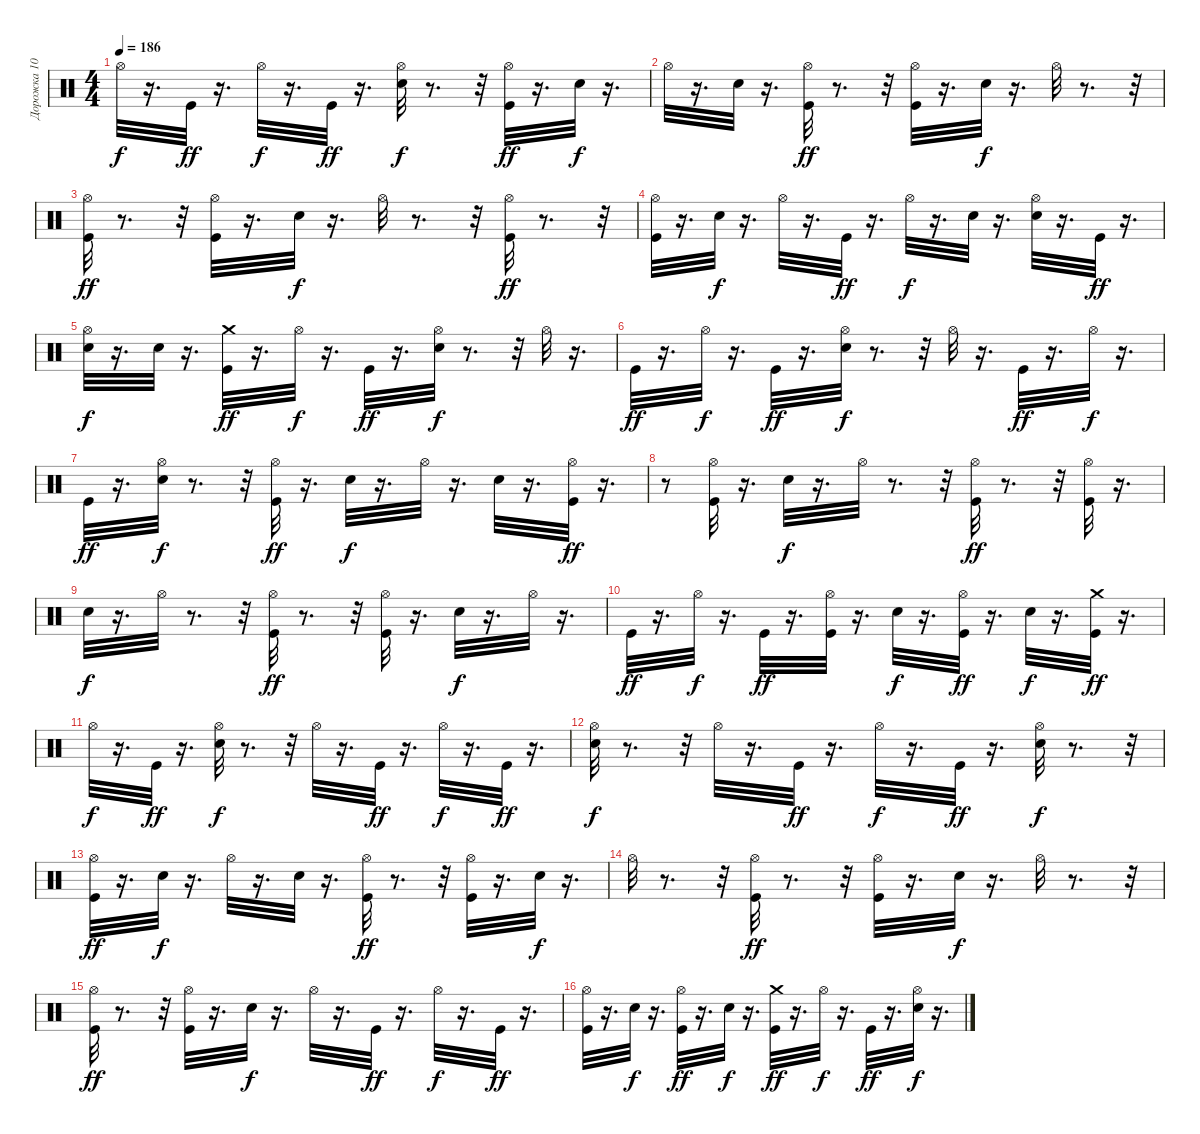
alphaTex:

\track ("Дорожка 10" "Дорожка 10") {instrument percussion}
\staff {score}
\articulation defaults
\ts (4 4)
\tempo 186
\clef neutral
\ks c "Hi-Hat (open)".32{dy f}
r.16{d} "Kick (hit)".32{dy ff} r.16{d} "Hi-Hat (open)".32{dy f} r.16{d} "Kick (hit)".32{dy ff} r.16{d} ("Electric Snare (hit)" "Hi-Hat (open)").32{dy f} r.8{d} r.32 ("Kick (hit)" "Hi-Hat (open)").32{dy ff} r.16{d} "Electric Snare (hit)".32{dy f} r.16{d} |
"Hi-Hat (open)".32 r.16{d} "Electric Snare (hit)".32 r.16{d} ("Hi-Hat (open)" "Kick (hit)").32{dy ff} r.8{d} r.32 ("Hi-Hat (open)" "Kick (hit)").32 r.16{d} "Electric Snare (hit)".32{dy f} r.16{d} "Hi-Hat (open)".32 r.8{d} r.32 |
("Hi-Hat (open)" "Kick (hit)").32{dy ff} r.8{d} r.32 ("Kick (hit)" "Hi-Hat (open)").32 r.16{d} "Electric Snare (hit)".32{dy f} r.16{d} "Hi-Hat (open)".32 r.8{d} r.32 ("Kick (hit)" "Hi-Hat (open)").32{dy ff} r.8{d} r.32 |
("Kick (hit)" "Hi-Hat (open)").32 r.16{d} "Electric Snare (hit)".32{dy f} r.16{d} "Hi-Hat (open)".32 r.16{d} "Kick (hit)".32{dy ff} r.16{d} "Hi-Hat (open)".32{dy f} r.16{d} "Electric Snare (hit)".32 r.16{d} ("Electric Snare (hit)" "Hi-Hat (open)").32 r.16{d} "Kick (hit)".32{dy ff} r.16{d} |
("Hi-Hat (open)" "Electric Snare (hit)").32{dy f} r.16{d} "Electric Snare (hit)".32 r.16{d} ("Crash medium (hit)" "Kick (hit)").32{dy ff} r.16{d} "Hi-Hat (open)".32{dy f} r.16{d} "Kick (hit)".32{dy ff} r.16{d} ("Hi-Hat (open)" "Electric Snare (hit)").32{dy f} r.8{d} r.32 "Hi-Hat (open)".32 r.16{d} |
"Kick (hit)".32{dy ff} r.16{d} "Hi-Hat (open)".32{dy f} r.16{d} "Kick (hit)".32{dy ff} r.16{d} ("Electric Snare (hit)" "Hi-Hat (open)").32{dy f} r.8{d} r.32 "Hi-Hat (open)".32 r.16{d} "Kick (hit)".32{dy ff} r.16{d} "Hi-Hat (open)".32{dy f} r.16{d} |
"Kick (hit)".32{dy ff} r.16{d} ("Hi-Hat (open)" "Electric Snare (hit)").32{dy f} r.8{d} r.32 ("Hi-Hat (open)" "Kick (hit)").32{dy ff} r.16{d} "Electric Snare (hit)".32{dy f} r.16{d} "Hi-Hat (open)".32 r.16{d} "Electric Snare (hit)".32 r.16{d} ("Hi-Hat (open)" "Kick (hit)").32{dy ff} r.16{d} |
r.8 ("Kick (hit)" "Hi-Hat (open)").32 r.16{d} "Electric Snare (hit)".32{dy f} r.16{d} "Hi-Hat (open)".32 r.8{d} r.32 ("Kick (hit)" "Hi-Hat (open)").32{dy ff} r.8{d} r.32 ("Kick (hit)" "Hi-Hat (open)").32 r.16{d} |
"Electric Snare (hit)".32{dy f} r.16{d} "Hi-Hat (open)".32 r.8{d} r.32 ("Kick (hit)" "Hi-Hat (open)").32{dy ff} r.8{d} r.32 ("Hi-Hat (open)" "Kick (hit)").32 r.16{d} "Electric Snare (hit)".32{dy f} r.16{d} "Hi-Hat (open)".32 r.16{d} |
"Kick (hit)".32{dy ff} r.16{d} "Hi-Hat (open)".32{dy f} r.16{d} "Kick (hit)".32{dy ff} r.16{d} ("Kick (hit)" "Hi-Hat (open)").32 r.16{d} "Electric Snare (hit)".32{dy f} r.16{d} ("Hi-Hat (open)" "Kick (hit)").32{dy ff} r.16{d} "Electric Snare (hit)".32{dy f} r.16{d} ("Kick (hit)" "Crash medium (hit)").32{dy ff} r.16{d} |
"Hi-Hat (open)".32{dy f} r.16{d} "Kick (hit)".32{dy ff} r.16{d} ("Electric Snare (hit)" "Hi-Hat (open)").32{dy f} r.8{d} r.32 "Hi-Hat (open)".32 r.16{d} "Kick (hit)".32{dy ff} r.16{d} "Hi-Hat (open)".32{dy f} r.16{d} "Kick (hit)".32{dy ff} r.16{d} |
("Electric Snare (hit)" "Hi-Hat (open)").32{dy f} r.8{d} r.32 "Hi-Hat (open)".32 r.16{d} "Kick (hit)".32{dy ff} r.16{d} "Hi-Hat (open)".32{dy f} r.16{d} "Kick (hit)".32{dy ff} r.16{d} ("Hi-Hat (open)" "Electric Snare (hit)").32{dy f} r.8{d} r.32 |
("Kick (hit)" "Hi-Hat (open)").32{dy ff} r.16{d} "Electric Snare (hit)".32{dy f} r.16{d} "Hi-Hat (open)".32 r.16{d} "Electric Snare (hit)".32 r.16{d} ("Kick (hit)" "Hi-Hat (open)").32{dy ff} r.8{d} r.32 ("Hi-Hat (open)" "Kick (hit)").32 r.16{d} "Electric Snare (hit)".32{dy f} r.16{d} |
"Hi-Hat (open)".32 r.8{d} r.32 ("Hi-Hat (open)" "Kick (hit)").32{dy ff} r.8{d} r.32 ("Kick (hit)" "Hi-Hat (open)").32 r.16{d} "Electric Snare (hit)".32{dy f} r.16{d} "Hi-Hat (open)".32 r.8{d} r.32 |
("Kick (hit)" "Hi-Hat (open)").32{dy ff} r.8{d} r.32 ("Kick (hit)" "Hi-Hat (open)").32 r.16{d} "Electric Snare (hit)".32{dy f} r.16{d} "Hi-Hat (open)".32 r.16{d} "Kick (hit)".32{dy ff} r.16{d} "Hi-Hat (open)".32{dy f} r.16{d} "Kick (hit)".32{dy ff} r.16{d} |
("Hi-Hat (open)" "Kick (hit)").32 r.16{d} "Electric Snare (hit)".32{dy f} r.16{d} ("Kick (hit)" "Hi-Hat (open)").32{dy ff} r.16{d} "Electric Snare (hit)".32{dy f} r.16{d} ("Kick (hit)" "Crash medium (hit)").32{dy ff} r.16{d} "Hi-Hat (open)".32{dy f} r.16{d} "Kick (hit)".32{dy ff} r.16{d} ("Hi-Hat (open)" "Electric Snare (hit)").32{dy f} r.16{d}
